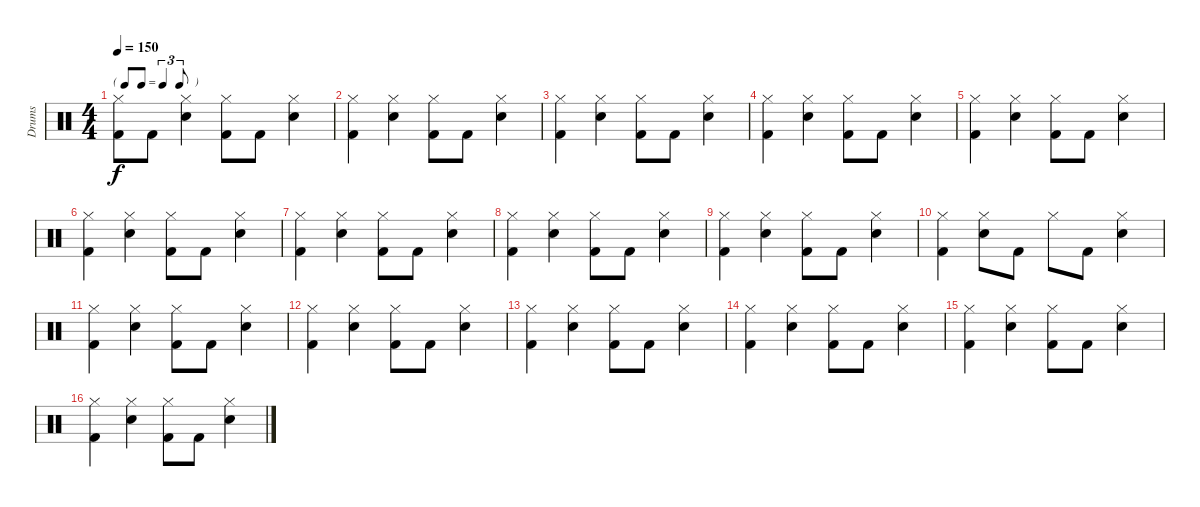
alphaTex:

\track ("Drums" "Drums") {instrument percussion}
\staff {score}
\articulation defaults
\ts (4 4)
\tf triplet8th
\tempo 150
\clef neutral
\ks c
("Hi-Hat (closed)" "Kick (hit) 2").8{dy f} "Kick (hit) 2".8 ("Hi-Hat (closed)" "Snare (hit) 2").4 ("Hi-Hat (closed)" "Kick (hit) 2").8 "Kick (hit) 2".8 ("Hi-Hat (closed)" "Snare (hit) 2").4 |
("Hi-Hat (closed)" "Kick (hit) 2").4 ("Hi-Hat (closed)" "Snare (hit) 2").4 ("Hi-Hat (closed)" "Kick (hit) 2").8 "Kick (hit) 2".8 ("Hi-Hat (closed)" "Snare (hit) 2").4 |
("Hi-Hat (closed)" "Kick (hit) 2").4 ("Hi-Hat (closed)" "Snare (hit) 2").4 ("Hi-Hat (closed)" "Kick (hit) 2").8 "Kick (hit) 2".8 ("Hi-Hat (closed)" "Snare (hit) 2").4 |
("Hi-Hat (closed)" "Kick (hit) 2").4 ("Hi-Hat (closed)" "Snare (hit) 2").4 ("Hi-Hat (closed)" "Kick (hit) 2").8 "Kick (hit) 2".8 ("Hi-Hat (closed)" "Snare (hit) 2").4 |
("Hi-Hat (closed)" "Kick (hit) 2").4 ("Hi-Hat (closed)" "Snare (hit) 2").4 ("Hi-Hat (closed)" "Kick (hit) 2").8 "Kick (hit) 2".8 ("Hi-Hat (closed)" "Snare (hit) 2").4 |
("Hi-Hat (closed)" "Kick (hit) 2").4 ("Hi-Hat (closed)" "Snare (hit) 2").4 ("Hi-Hat (closed)" "Kick (hit) 2").8 "Kick (hit) 2".8 ("Hi-Hat (closed)" "Snare (hit) 2").4 |
("Hi-Hat (closed)" "Kick (hit) 2").4 ("Hi-Hat (closed)" "Snare (hit) 2").4 ("Hi-Hat (closed)" "Kick (hit) 2").8 "Kick (hit) 2".8 ("Hi-Hat (closed)" "Snare (hit) 2").4 |
("Hi-Hat (closed)" "Kick (hit) 2").4 ("Hi-Hat (closed)" "Snare (hit) 2").4 ("Hi-Hat (closed)" "Kick (hit) 2").8 "Kick (hit) 2".8 ("Hi-Hat (closed)" "Snare (hit) 2").4 |
("Hi-Hat (closed)" "Kick (hit) 2").4 ("Hi-Hat (closed)" "Snare (hit) 2").4 ("Hi-Hat (closed)" "Kick (hit) 2").8 "Kick (hit) 2".8 ("Hi-Hat (closed)" "Snare (hit) 2").4 |
("Hi-Hat (closed)" "Kick (hit) 2").4 ("Hi-Hat (closed)" "Snare (hit) 2").8 "Kick (hit) 2".8 "Hi-Hat (closed)".8 "Kick (hit) 2".8 ("Hi-Hat (closed)" "Snare (hit) 2").4 |
("Hi-Hat (closed)" "Kick (hit) 2").4 ("Hi-Hat (closed)" "Snare (hit) 2").4 ("Hi-Hat (closed)" "Kick (hit) 2").8 "Kick (hit) 2".8 ("Hi-Hat (closed)" "Snare (hit) 2").4 |
("Hi-Hat (closed)" "Kick (hit) 2").4 ("Hi-Hat (closed)" "Snare (hit) 2").4 ("Hi-Hat (closed)" "Kick (hit) 2").8 "Kick (hit) 2".8 ("Hi-Hat (closed)" "Snare (hit) 2").4 |
("Hi-Hat (closed)" "Kick (hit) 2").4 ("Hi-Hat (closed)" "Snare (hit) 2").4 ("Hi-Hat (closed)" "Kick (hit) 2").8 "Kick (hit) 2".8 ("Hi-Hat (closed)" "Snare (hit) 2").4 |
("Hi-Hat (closed)" "Kick (hit) 2").4 ("Hi-Hat (closed)" "Snare (hit) 2").4 ("Hi-Hat (closed)" "Kick (hit) 2").8 "Kick (hit) 2".8 ("Hi-Hat (closed)" "Snare (hit) 2").4 |
("Hi-Hat (closed)" "Kick (hit) 2").4 ("Hi-Hat (closed)" "Snare (hit) 2").4 ("Hi-Hat (closed)" "Kick (hit) 2").8 "Kick (hit) 2".8 ("Hi-Hat (closed)" "Snare (hit) 2").4 |
("Hi-Hat (closed)" "Kick (hit) 2").4 ("Hi-Hat (closed)" "Snare (hit) 2").4 ("Hi-Hat (closed)" "Kick (hit) 2").8 "Kick (hit) 2".8 ("Hi-Hat (closed)" "Snare (hit) 2").4
